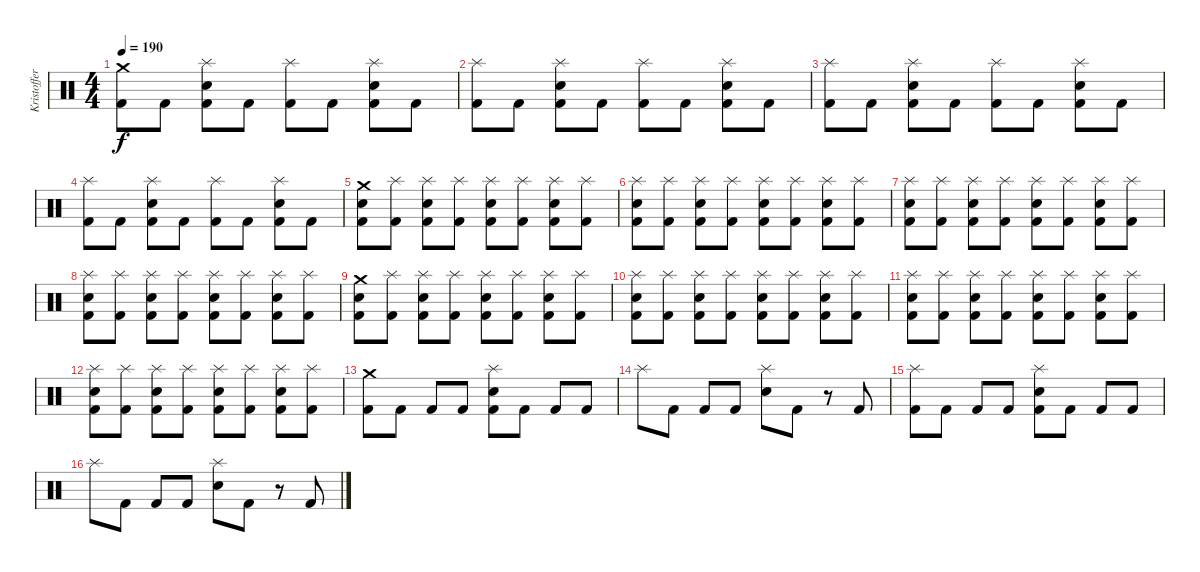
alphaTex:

\track ("Kristoffer (Drums)" "Kristoffer") {instrument percussion}
\staff {score}
\articulation defaults
\ts (4 4)
\tempo 190
\clef neutral
\ks c
("Kick (hit) 2" "Crash medium (hit)").8{dy f} "Kick (hit) 2".8 ("Kick (hit) 2" "Electric Snare (hit)" "Splash (hit)").8 "Kick (hit) 2".8 ("Kick (hit) 2" "Splash (hit)").8 "Kick (hit) 2".8 ("Kick (hit) 2" "Electric Snare (hit)" "Splash (hit)").8 "Kick (hit) 2".8 |
("Kick (hit) 2" "Splash (hit)").8 "Kick (hit) 2".8 ("Kick (hit) 2" "Electric Snare (hit)" "Splash (hit)").8 "Kick (hit) 2".8 ("Kick (hit) 2" "Splash (hit)").8 "Kick (hit) 2".8 ("Kick (hit) 2" "Electric Snare (hit)" "Splash (hit)").8 "Kick (hit) 2".8 |
("Kick (hit) 2" "Splash (hit)").8 "Kick (hit) 2".8 ("Kick (hit) 2" "Electric Snare (hit)" "Splash (hit)").8 "Kick (hit) 2".8 ("Kick (hit) 2" "Splash (hit)").8 "Kick (hit) 2".8 ("Kick (hit) 2" "Electric Snare (hit)" "Splash (hit)").8 "Kick (hit) 2".8 |
("Kick (hit) 2" "Splash (hit)").8 "Kick (hit) 2".8 ("Kick (hit) 2" "Electric Snare (hit)" "Splash (hit)").8 "Kick (hit) 2".8 ("Kick (hit) 2" "Splash (hit)").8 "Kick (hit) 2".8 ("Kick (hit) 2" "Electric Snare (hit)" "Splash (hit)").8 "Kick (hit) 2".8 |
("Kick (hit) 2" "Electric Snare (hit)" "Crash medium (hit)").8 ("Kick (hit) 2" "Splash (hit)").8 ("Kick (hit) 2" "Electric Snare (hit)" "Splash (hit)").8 ("Kick (hit) 2" "Splash (hit)").8 ("Kick (hit) 2" "Electric Snare (hit)" "Splash (hit)").8 ("Kick (hit) 2" "Splash (hit)").8 ("Kick (hit) 2" "Electric Snare (hit)" "Splash (hit)").8 ("Kick (hit) 2" "Splash (hit)").8 |
("Kick (hit) 2" "Electric Snare (hit)" "Splash (hit)").8 ("Kick (hit) 2" "Splash (hit)").8 ("Kick (hit) 2" "Electric Snare (hit)" "Splash (hit)").8 ("Kick (hit) 2" "Splash (hit)").8 ("Kick (hit) 2" "Electric Snare (hit)" "Splash (hit)").8 ("Kick (hit) 2" "Splash (hit)").8 ("Kick (hit) 2" "Electric Snare (hit)" "Splash (hit)").8 ("Kick (hit) 2" "Splash (hit)").8 |
("Kick (hit) 2" "Electric Snare (hit)" "Splash (hit)").8 ("Kick (hit) 2" "Splash (hit)").8 ("Kick (hit) 2" "Electric Snare (hit)" "Splash (hit)").8 ("Kick (hit) 2" "Splash (hit)").8 ("Kick (hit) 2" "Electric Snare (hit)" "Splash (hit)").8 ("Kick (hit) 2" "Splash (hit)").8 ("Kick (hit) 2" "Electric Snare (hit)" "Splash (hit)").8 ("Kick (hit) 2" "Splash (hit)").8 |
("Kick (hit) 2" "Electric Snare (hit)" "Splash (hit)").8 ("Kick (hit) 2" "Splash (hit)").8 ("Kick (hit) 2" "Electric Snare (hit)" "Splash (hit)").8 ("Kick (hit) 2" "Splash (hit)").8 ("Kick (hit) 2" "Electric Snare (hit)" "Splash (hit)").8 ("Kick (hit) 2" "Splash (hit)").8 ("Kick (hit) 2" "Electric Snare (hit)" "Splash (hit)").8 ("Kick (hit) 2" "Splash (hit)").8 |
("Kick (hit) 2" "Electric Snare (hit)" "Crash medium (hit)").8 ("Kick (hit) 2" "Splash (hit)").8 ("Kick (hit) 2" "Electric Snare (hit)" "Splash (hit)").8 ("Kick (hit) 2" "Splash (hit)").8 ("Kick (hit) 2" "Electric Snare (hit)" "Splash (hit)").8 ("Kick (hit) 2" "Splash (hit)").8 ("Kick (hit) 2" "Electric Snare (hit)" "Splash (hit)").8 ("Kick (hit) 2" "Splash (hit)").8 |
("Kick (hit) 2" "Electric Snare (hit)" "Splash (hit)").8 ("Kick (hit) 2" "Splash (hit)").8 ("Kick (hit) 2" "Electric Snare (hit)" "Splash (hit)").8 ("Kick (hit) 2" "Splash (hit)").8 ("Kick (hit) 2" "Electric Snare (hit)" "Splash (hit)").8 ("Kick (hit) 2" "Splash (hit)").8 ("Kick (hit) 2" "Electric Snare (hit)" "Splash (hit)").8 ("Kick (hit) 2" "Splash (hit)").8 |
("Kick (hit) 2" "Electric Snare (hit)" "Splash (hit)").8 ("Kick (hit) 2" "Splash (hit)").8 ("Kick (hit) 2" "Electric Snare (hit)" "Splash (hit)").8 ("Kick (hit) 2" "Splash (hit)").8 ("Kick (hit) 2" "Electric Snare (hit)" "Splash (hit)").8 ("Kick (hit) 2" "Splash (hit)").8 ("Kick (hit) 2" "Electric Snare (hit)" "Splash (hit)").8 ("Kick (hit) 2" "Splash (hit)").8 |
("Kick (hit) 2" "Electric Snare (hit)" "Splash (hit)").8 ("Kick (hit) 2" "Splash (hit)").8 ("Kick (hit) 2" "Electric Snare (hit)" "Splash (hit)").8 ("Kick (hit) 2" "Splash (hit)").8 ("Kick (hit) 2" "Electric Snare (hit)" "Splash (hit)").8 ("Kick (hit) 2" "Splash (hit)").8 ("Kick (hit) 2" "Electric Snare (hit)" "Splash (hit)").8 ("Kick (hit) 2" "Splash (hit)").8 |
("Kick (hit) 2" "Crash medium (hit)").8 "Kick (hit) 2".8 "Kick (hit) 2".8 "Kick (hit) 2".8 ("Kick (hit) 2" "Electric Snare (hit)" "Splash (hit)").8 "Kick (hit) 2".8 "Kick (hit) 2".8 "Kick (hit) 2".8 |
"Splash (hit)".8 "Kick (hit) 2".8 "Kick (hit) 2".8 "Kick (hit) 2".8 ("Electric Snare (hit)" "Splash (hit)").8 "Kick (hit) 2".8 r.8 "Kick (hit) 2".8 |
("Kick (hit) 2" "Splash (hit)").8 "Kick (hit) 2".8 "Kick (hit) 2".8 "Kick (hit) 2".8 ("Kick (hit) 2" "Electric Snare (hit)" "Splash (hit)").8 "Kick (hit) 2".8 "Kick (hit) 2".8 "Kick (hit) 2".8 |
"Splash (hit)".8 "Kick (hit) 2".8 "Kick (hit) 2".8 "Kick (hit) 2".8 ("Electric Snare (hit)" "Splash (hit)").8 "Kick (hit) 2".8 r.8 "Kick (hit) 2".8
